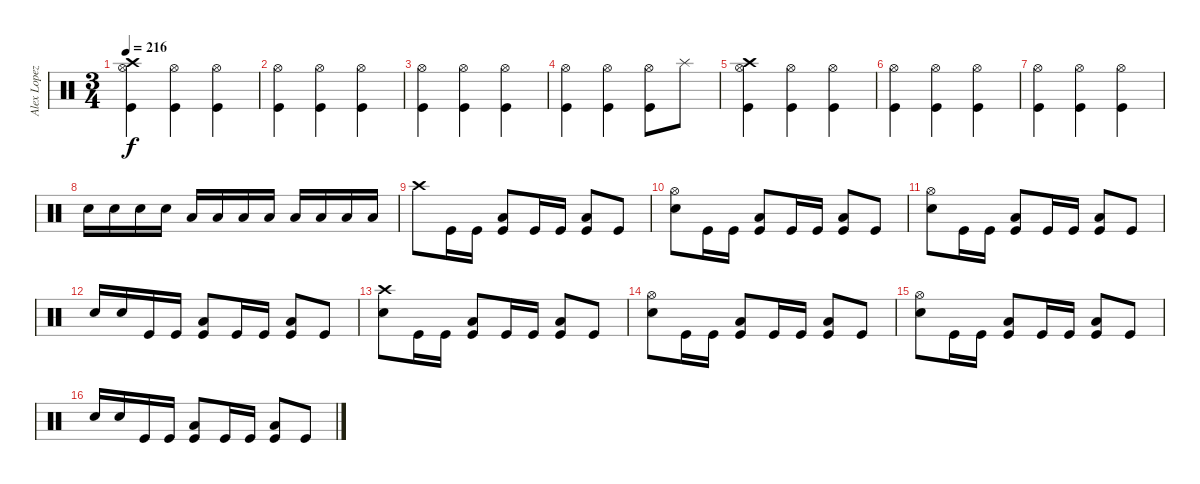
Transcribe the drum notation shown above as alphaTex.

\track ("Alex Lopez" "Alex Lopez") {instrument percussion}
\staff {score}
\articulation defaults
\ts (3 4)
\tempo 216
\clef neutral
\ks c
("Crash high (hit)" "Hi-Hat (open)" "Kick (hit)").4{dy f} ("Hi-Hat (open)" "Kick (hit)").4 ("Hi-Hat (open)" "Kick (hit)").4 |
("Hi-Hat (open)" "Kick (hit)").4 ("Hi-Hat (open)" "Kick (hit)").4 ("Hi-Hat (open)" "Kick (hit)").4 |
("Hi-Hat (open)" "Kick (hit)").4 ("Hi-Hat (open)" "Kick (hit)").4 ("Hi-Hat (open)" "Kick (hit)").4 |
("Hi-Hat (open)" "Kick (hit)").4 ("Hi-Hat (open)" "Kick (hit)").4 ("Hi-Hat (open)" "Kick (hit)").8 "Splash (hit)".8 |
("Crash high (hit)" "Hi-Hat (open)" "Kick (hit)").4 ("Hi-Hat (open)" "Kick (hit)").4 ("Hi-Hat (open)" "Kick (hit)").4 |
("Hi-Hat (open)" "Kick (hit)").4 ("Hi-Hat (open)" "Kick (hit)").4 ("Hi-Hat (open)" "Kick (hit)").4 |
("Hi-Hat (open)" "Kick (hit)").4 ("Hi-Hat (open)" "Kick (hit)").4 ("Hi-Hat (open)" "Kick (hit)").4 |
"Electric Snare (hit)".16 "Electric Snare (hit)".16 "Electric Snare (hit)".16 "Electric Snare (hit)".16 "Low Tom (hit)".16 "Low Tom (hit)".16 "Low Tom (hit)".16 "Low Tom (hit)".16 "Low Floor Tom (hit)".16 "Low Floor Tom (hit)".16 "Low Floor Tom (hit)".16 "Low Floor Tom (hit)".16 |
"Crash high (hit)".8 "Kick (hit)".16 "Kick (hit)".16 ("Low Tom (hit)" "Kick (hit)").8 "Kick (hit)".16 "Kick (hit)".16 ("Low Floor Tom (hit)" "Kick (hit)").8 "Kick (hit)".8 |
("Hi-Hat (open)" "Electric Snare (hit)").8 "Kick (hit)".16 "Kick (hit)".16 ("Low Tom (hit)" "Kick (hit)").8 "Kick (hit)".16 "Kick (hit)".16 ("Low Floor Tom (hit)" "Kick (hit)").8 "Kick (hit)".8 |
("Hi-Hat (open)" "Electric Snare (hit)").8 "Kick (hit)".16 "Kick (hit)".16 ("Low Tom (hit)" "Kick (hit)").8 "Kick (hit)".16 "Kick (hit)".16 ("Low Floor Tom (hit)" "Kick (hit)").8 "Kick (hit)".8 |
"Electric Snare (hit)".16 "Electric Snare (hit)".16 "Kick (hit)".16 "Kick (hit)".16 ("Low Tom (hit)" "Kick (hit)").8 "Kick (hit)".16 "Kick (hit)".16 ("Low Tom (hit)" "Kick (hit)").8 "Kick (hit)".8 |
("Crash high (hit)" "Electric Snare (hit)").8 "Kick (hit)".16 "Kick (hit)".16 ("Low Tom (hit)" "Kick (hit)").8 "Kick (hit)".16 "Kick (hit)".16 ("Low Floor Tom (hit)" "Kick (hit)").8 "Kick (hit)".8 |
("Hi-Hat (open)" "Electric Snare (hit)").8 "Kick (hit)".16 "Kick (hit)".16 ("Low Tom (hit)" "Kick (hit)").8 "Kick (hit)".16 "Kick (hit)".16 ("Low Floor Tom (hit)" "Kick (hit)").8 "Kick (hit)".8 |
("Hi-Hat (open)" "Electric Snare (hit)").8 "Kick (hit)".16 "Kick (hit)".16 ("Low Tom (hit)" "Kick (hit)").8 "Kick (hit)".16 "Kick (hit)".16 ("Low Floor Tom (hit)" "Kick (hit)").8 "Kick (hit)".8 |
"Electric Snare (hit)".16 "Electric Snare (hit)".16 "Kick (hit)".16 "Kick (hit)".16 ("Low Tom (hit)" "Kick (hit)").8 "Kick (hit)".16 "Kick (hit)".16 ("Low Tom (hit)" "Kick (hit)").8 "Kick (hit)".8
